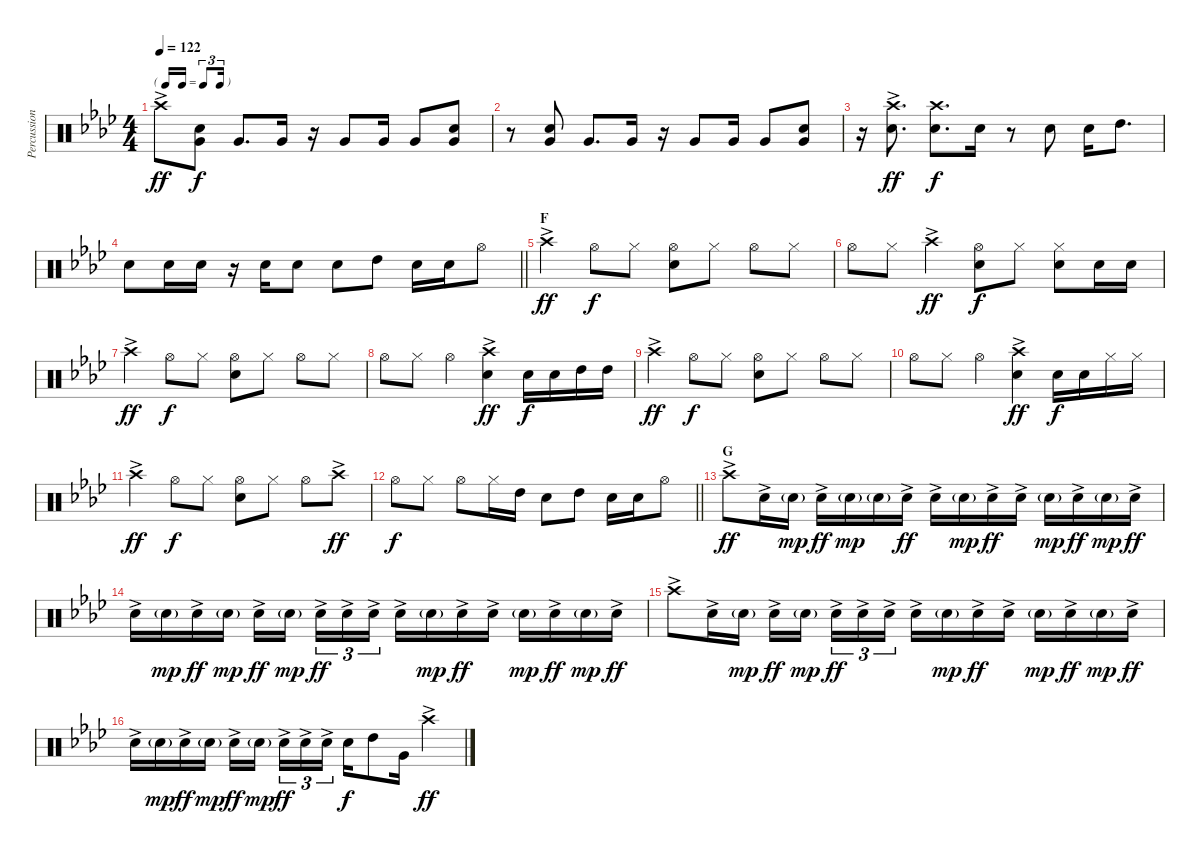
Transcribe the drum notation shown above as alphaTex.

\track ("Percussion Hand" "Percussion") {instrument percussion}
\staff {score}
\articulation defaults
\ts (4 4)
\tf triplet16th
\tempo 122
\clef neutral
\ks ab "Crash high (hit)"{ac}.8{dy ff}
("Snare (hit) 2" "Very Low Tom (hit)").8{dy f} "Very Low Tom (hit)".8{d} "Very Low Tom (hit)".16 r.16 "Very Low Tom (hit)".8 "Very Low Tom (hit)".16 "Very Low Tom (hit)".8 ("Snare (hit) 2" "Very Low Tom (hit)").8 |
r.8 ("Snare (hit) 2" "Very Low Tom (hit)").8 "Very Low Tom (hit)".8{d} "Very Low Tom (hit)".16 r.16 "Very Low Tom (hit)".8 "Very Low Tom (hit)".16 "Very Low Tom (hit)".8 ("Snare (hit) 2" "Very Low Tom (hit)").8 |
r.16 ("Snare (hit) 2"{ac} "Crash high (hit)").8{d dy ff} ("Snare (hit) 2" "Crash high (hit)").8{d dy f} "Snare (hit) 2".16 r.8 "Snare (hit) 2".8 "Snare (hit) 2".16 "High Tom (hit)".8{d} |
\barLineRight lightlight "Snare (hit) 2".8 "Snare (hit) 2".16 "Snare (hit) 2".16
r.16 "Snare (hit) 2".16 "Snare (hit) 2".8 "Snare (hit) 2".8 "High Tom (hit)".8 "Snare (hit) 2".16 "Snare (hit) 2".16 "Hi-Hat (open)".8 |
\section ("" "F")
"Crash high (hit)"{ac}.4{dy ff} "Hi-Hat (open)".8{dy f} "Hi-Hat (closed)".8 ("Hi-Hat (open)" "Snare (hit) 2").8 "Hi-Hat (closed)".8 "Hi-Hat (open)".8 "Hi-Hat (closed)".8 |
"Hi-Hat (open)".8 "Hi-Hat (closed)".8 "Crash high (hit)"{ac}.4{dy ff} ("Hi-Hat (open)" "Snare (hit) 2").8{dy f} "Hi-Hat (closed)".8 ("Hi-Hat (closed)" "Snare (hit) 2").8 "Snare (hit) 2".16 "Snare (hit) 2".16 |
"Crash high (hit)"{ac}.4{dy ff} "Hi-Hat (open)".8{dy f} "Hi-Hat (closed)".8 ("Hi-Hat (open)" "Snare (hit) 2").8 "Hi-Hat (closed)".8 "Hi-Hat (open)".8 "Hi-Hat (closed)".8 |
"Hi-Hat (open)".8 "Hi-Hat (closed)".8 "Hi-Hat (open)".4 ("Crash high (hit)"{ac} "Snare (hit) 2").4{dy ff} "Snare (hit) 2".16{dy f} "Snare (hit) 2".16 "High Tom (hit)".16 "High Tom (hit)".16 |
"Crash high (hit)"{ac}.4{dy ff} "Hi-Hat (open)".8{dy f} "Hi-Hat (closed)".8 ("Hi-Hat (open)" "Snare (hit) 2").8 "Hi-Hat (closed)".8 "Hi-Hat (open)".8 "Hi-Hat (closed)".8 |
"Hi-Hat (open)".8 "Hi-Hat (closed)".8 "Hi-Hat (open)".4 ("Crash high (hit)"{ac} "Snare (hit) 2").4{dy ff} "Snare (hit) 2".16{dy f} "Snare (hit) 2".16 "Hi-Hat (closed)".16 "Hi-Hat (closed)".16 |
"Crash high (hit)"{ac}.4{dy ff} "Hi-Hat (open)".8{dy f} "Hi-Hat (closed)".8 ("Hi-Hat (open)" "Snare (hit) 2").8 "Hi-Hat (closed)".8 "Hi-Hat (open)".8 "Crash high (hit)"{ac}.8{dy ff} |
\barLineRight lightlight "Hi-Hat (open)".8{dy f} "Hi-Hat (closed)".8 "Hi-Hat (open)".8 "Hi-Hat (closed)".16 "High Tom (hit)".16 "Snare (hit) 2".8 "High Tom (hit)".8 "Snare (hit) 2".16 "Snare (hit) 2".16 "Hi-Hat (open)".8
|
\section ("" "G")
"Crash high (hit)"{ac}.8{dy ff} "Snare (hit) 2"{ac}.16 "Snare (hit) 2"{g}.16{dy mp} "Snare (hit) 2"{ac}.16{dy ff} "Snare (hit) 2"{g}.16{dy mp} "Snare (hit) 2"{g}.16 "Snare (hit) 2"{ac}.16{dy ff} "Snare (hit) 2"{ac}.16 "Snare (hit) 2"{g}.16{dy mp} "Snare (hit) 2"{ac}.16{dy ff} "Snare (hit) 2"{ac}.16 "Snare (hit) 2"{g}.16{dy mp} "Snare (hit) 2"{ac}.16{dy ff} "Snare (hit) 2"{g}.16{dy mp} "Snare (hit) 2"{ac}.16{dy ff} |
"Snare (hit) 2"{ac}.16 "Snare (hit) 2"{g}.16{dy mp} "Snare (hit) 2"{ac}.16{dy ff} "Snare (hit) 2"{g}.16{dy mp} "Snare (hit) 2"{ac}.16{dy ff} "Snare (hit) 2"{g}.16{dy mp beam splitsecondary} "Snare (hit) 2"{ac}.16{tu (3 2) dy ff} "Snare (hit) 2"{ac}.16{tu (3 2)} "Snare (hit) 2"{ac}.16{tu (3 2)} "Snare (hit) 2"{ac}.16 "Snare (hit) 2"{g}.16{dy mp} "Snare (hit) 2"{ac}.16{dy ff} "Snare (hit) 2"{ac}.16 "Snare (hit) 2"{g}.16{dy mp} "Snare (hit) 2"{ac}.16{dy ff} "Snare (hit) 2"{g}.16{dy mp} "Snare (hit) 2"{ac}.16{dy ff} |
"Crash high (hit)"{ac}.8 "Snare (hit) 2"{ac}.16 "Snare (hit) 2"{g}.16{dy mp} "Snare (hit) 2"{ac}.16{dy ff} "Snare (hit) 2"{g}.16{dy mp beam splitsecondary} "Snare (hit) 2"{ac}.16{tu (3 2) dy ff} "Snare (hit) 2"{ac}.16{tu (3 2)} "Snare (hit) 2"{ac}.16{tu (3 2)} "Snare (hit) 2"{ac}.16 "Snare (hit) 2"{g}.16{dy mp} "Snare (hit) 2"{ac}.16{dy ff} "Snare (hit) 2"{ac}.16 "Snare (hit) 2"{g}.16{dy mp} "Snare (hit) 2"{ac}.16{dy ff} "Snare (hit) 2"{g}.16{dy mp} "Snare (hit) 2"{ac}.16{dy ff} |
"Snare (hit) 2"{ac}.16 "Snare (hit) 2"{g}.16{dy mp} "Snare (hit) 2"{ac}.16{dy ff} "Snare (hit) 2"{g}.16{dy mp} "Snare (hit) 2"{ac}.16{dy ff} "Snare (hit) 2"{g}.16{dy mp beam splitsecondary} "Snare (hit) 2"{ac}.16{tu (3 2) dy ff} "Snare (hit) 2"{ac}.16{tu (3 2)} "Snare (hit) 2"{ac}.16{tu (3 2)} "Snare (hit) 2".16{dy f} "High Tom (hit)".8 "Very Low Tom (hit)".16 "Crash high (hit)"{ac}.4{dy ff}
